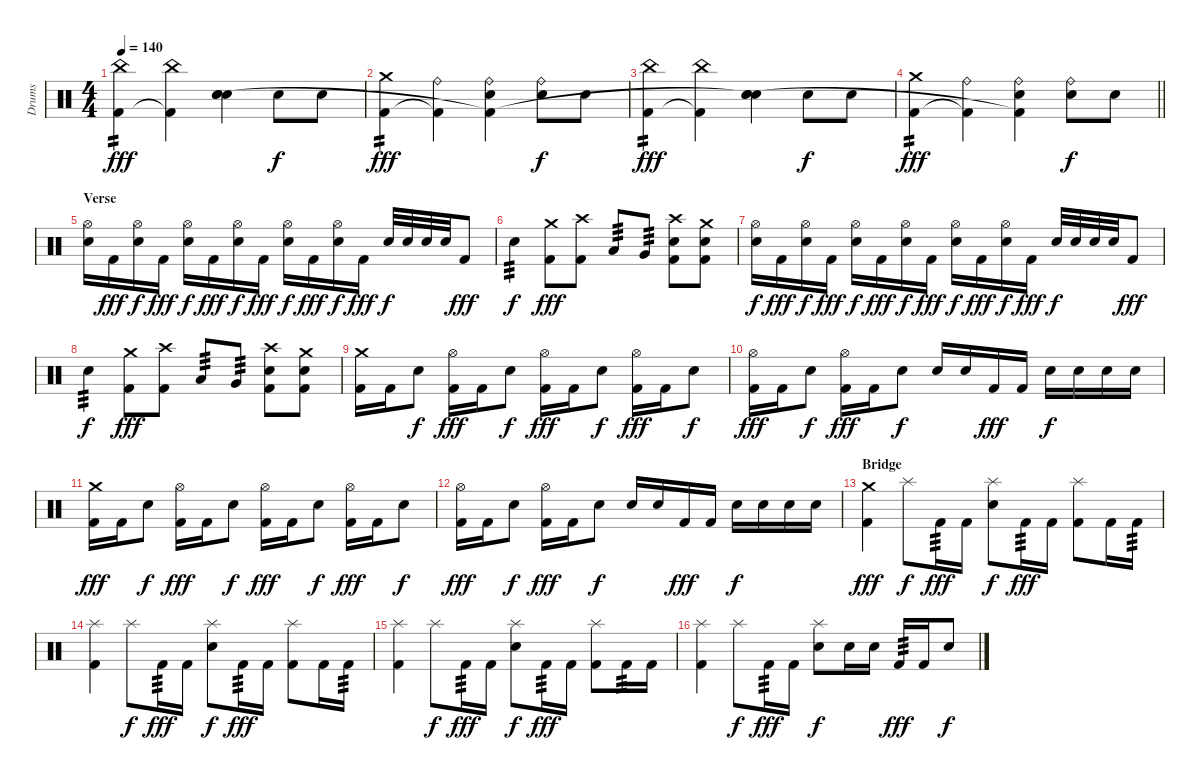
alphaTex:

\track ("Drums" "Drums") {instrument percussion}
\staff {score}
\articulation defaults
\ts (4 4)
\tempo 140
\clef neutral
\ks c
("China (hit)" "Kick (hit) 2").4{tp 2 dy fff} ("China (hit)" "Kick (hit) 2"{t}).4 ("Electric Snare (hit)" "Electric Snare (hit)" "Snare (hit)"{t}).4{bd 240} "Electric Snare (hit)".8{dy f} "Electric Snare (hit)".8 |
("Crash medium (hit)" "Kick (hit) 2").4{tp 2 dy fff} ("Ride (bell)" "Kick (hit) 2"{t}).4 ("Ride (bell)" "Electric Snare (hit)" "Kick (hit) 2"{t}).4 ("Ride (bell)" "Electric Snare (hit)").8{dy f} "Electric Snare (hit)".8 |
("China (hit)" "Kick (hit) 2").4{tp 2 dy fff} ("China (hit)" "Kick (hit) 2"{t}).4 ("Electric Snare (hit)" "Electric Snare (hit)" "Snare (hit)"{t}).4{bd 240} "Electric Snare (hit)".8{dy f} "Electric Snare (hit)".8 |
\barLineRight lightlight
("Crash medium (hit)" "Kick (hit) 2").4{tp 2 dy fff} ("Ride (bell)" "Kick (hit) 2"{t}).4 ("Ride (bell)" "Electric Snare (hit)" "Kick (hit) 2"{t}).4 ("Ride (bell)" "Electric Snare (hit)").8{dy f} "Electric Snare (hit)".8 |
\section ("" "Verse")
("Hi-Hat (open)" "Electric Snare (hit)").16 "Kick (hit) 2".16{dy fff} ("Hi-Hat (open)" "Electric Snare (hit)").16{dy f} "Kick (hit) 2".16{dy fff} ("Hi-Hat (open)" "Electric Snare (hit)").16{dy f} "Kick (hit) 2".16{dy fff} ("Hi-Hat (open)" "Electric Snare (hit)").16{dy f} "Kick (hit) 2".16{dy fff} ("Hi-Hat (open)" "Electric Snare (hit)").16{dy f} "Kick (hit) 2".16{dy fff} ("Hi-Hat (open)" "Electric Snare (hit)").16{dy f} "Kick (hit) 2".16{dy fff} "Electric Snare (hit)".32{dy f} "Electric Snare (hit)".32 "Electric Snare (hit)".32 "Electric Snare (hit)".32 "Kick (hit) 2".8{dy fff} |
"Electric Snare (hit)".4{tp 3 dy f} ("Crash medium (hit)" "Kick (hit) 2").8{dy fff} ("Crash high (hit)" "Kick (hit) 2").8 "Low Tom (hit)".8{tp 3} "Very Low Tom (hit)".8{tp 3} ("Crash high (hit)" "Electric Snare (hit)" "Kick (hit) 2").8 ("Crash medium (hit)" "Electric Snare (hit)" "Kick (hit) 2").8 |
("Hi-Hat (open)" "Electric Snare (hit)").16{dy f} "Kick (hit) 2".16{dy fff} ("Hi-Hat (open)" "Electric Snare (hit)").16{dy f} "Kick (hit) 2".16{dy fff} ("Hi-Hat (open)" "Electric Snare (hit)").16{dy f} "Kick (hit) 2".16{dy fff} ("Hi-Hat (open)" "Electric Snare (hit)").16{dy f} "Kick (hit) 2".16{dy fff} ("Hi-Hat (open)" "Electric Snare (hit)").16{dy f} "Kick (hit) 2".16{dy fff} ("Hi-Hat (open)" "Electric Snare (hit)").16{dy f} "Kick (hit) 2".16{dy fff} "Electric Snare (hit)".32{dy f} "Electric Snare (hit)".32 "Electric Snare (hit)".32 "Electric Snare (hit)".32 "Kick (hit) 2".8{dy fff} |
"Electric Snare (hit)".4{tp 3 dy f} ("Crash medium (hit)" "Kick (hit) 2").8{dy fff} ("Crash high (hit)" "Kick (hit) 2").8 "Low Tom (hit)".8{tp 3} "Very Low Tom (hit)".8{tp 3} ("Crash high (hit)" "Electric Snare (hit)" "Kick (hit) 2").8 ("Crash medium (hit)" "Electric Snare (hit)" "Kick (hit) 2").8 |
("Crash medium (hit)" "Kick (hit) 2").16 "Kick (hit) 2".16 "Electric Snare (hit)".8{dy f} ("Hi-Hat (open)" "Kick (hit) 2").16{dy fff} "Kick (hit) 2".16 "Electric Snare (hit)".8{dy f} ("Hi-Hat (open)" "Kick (hit) 2").16{dy fff} "Kick (hit) 2".16 "Electric Snare (hit)".8{dy f} ("Hi-Hat (open)" "Kick (hit) 2").16{dy fff} "Kick (hit) 2".16 "Electric Snare (hit)".8{dy f} |
("Hi-Hat (open)" "Kick (hit) 2").16{dy fff} "Kick (hit) 2".16 "Electric Snare (hit)".8{dy f} ("Hi-Hat (open)" "Kick (hit) 2").16{dy fff} "Kick (hit) 2".16 "Electric Snare (hit)".8{dy f} "Electric Snare (hit)".16 "Electric Snare (hit)".16 "Kick (hit) 2".16{dy fff} "Kick (hit) 2".16 "Electric Snare (hit)".16{dy f} "Electric Snare (hit)".16 "Electric Snare (hit)".16 "Electric Snare (hit)".16 |
("Crash medium (hit)" "Kick (hit) 2").16{dy fff} "Kick (hit) 2".16 "Electric Snare (hit)".8{dy f} ("Hi-Hat (open)" "Kick (hit) 2").16{dy fff} "Kick (hit) 2".16 "Electric Snare (hit)".8{dy f} ("Hi-Hat (open)" "Kick (hit) 2").16{dy fff} "Kick (hit) 2".16 "Electric Snare (hit)".8{dy f} ("Hi-Hat (open)" "Kick (hit) 2").16{dy fff} "Kick (hit) 2".16 "Electric Snare (hit)".8{dy f} |
("Hi-Hat (open)" "Kick (hit) 2").16{dy fff} "Kick (hit) 2".16 "Electric Snare (hit)".8{dy f} ("Hi-Hat (open)" "Kick (hit) 2").16{dy fff} "Kick (hit) 2".16 "Electric Snare (hit)".8{dy f} "Electric Snare (hit)".16 "Electric Snare (hit)".16 "Kick (hit) 2".16{dy fff} "Kick (hit) 2".16 "Electric Snare (hit)".16{dy f} "Electric Snare (hit)".16 "Electric Snare (hit)".16 "Electric Snare (hit)".16 |
\section ("" "Bridge")
("Crash medium (hit)" "Kick (hit) 2").4{dy fff} "Splash (hit)".8{dy f} "Kick (hit) 2".16{tp 3 dy fff} "Kick (hit) 2".16 ("Splash (hit)" "Electric Snare (hit)").8{dy f} "Kick (hit) 2".16{tp 3 dy fff} "Kick (hit) 2".16 ("Splash (hit)" "Kick (hit) 2").8 "Kick (hit) 2".16 "Kick (hit) 2".16{tp 3} |
("Splash (hit)" "Kick (hit) 2").4 "Splash (hit)".8{dy f} "Kick (hit) 2".16{tp 3 dy fff} "Kick (hit) 2".16 ("Splash (hit)" "Electric Snare (hit)").8{dy f} "Kick (hit) 2".16{tp 3 dy fff} "Kick (hit) 2".16 ("Splash (hit)" "Kick (hit) 2").8 "Kick (hit) 2".16 "Kick (hit) 2".16{tp 3} |
("Splash (hit)" "Kick (hit) 2").4 "Splash (hit)".8{dy f} "Kick (hit) 2".16{tp 3 dy fff} "Kick (hit) 2".16 ("Splash (hit)" "Electric Snare (hit)").8{dy f} "Kick (hit) 2".16{tp 3 dy fff} "Kick (hit) 2".16 ("Splash (hit)" "Kick (hit) 2").8 "Kick (hit) 2".16{tp 3} "Kick (hit) 2".16 |
("Splash (hit)" "Kick (hit) 2").4 "Splash (hit)".8{dy f} "Kick (hit) 2".16{tp 3 dy fff} "Kick (hit) 2".16 ("Splash (hit)" "Electric Snare (hit)").8{dy f} "Electric Snare (hit)".16 "Electric Snare (hit)".16 "Kick (hit) 2".16{tp 3 dy fff} "Kick (hit) 2".16 "Electric Snare (hit)".8{dy f}
